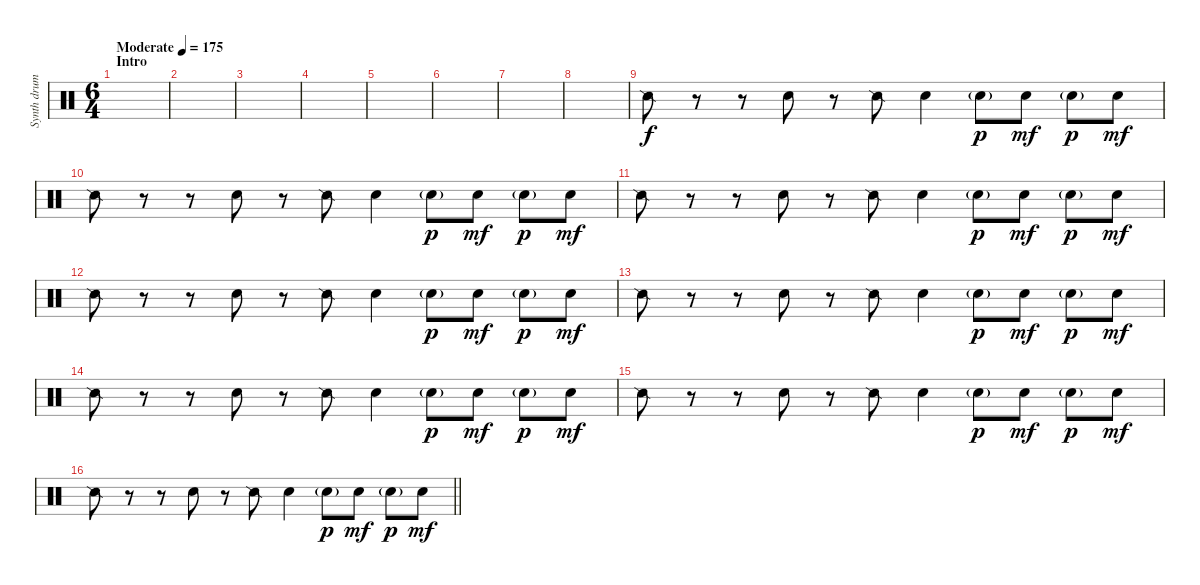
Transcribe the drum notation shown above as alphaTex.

\track ("Synth drums" "Synth drum") {instrument percussion}
\staff {score}
\articulation defaults
\ts (6 4)
\section ("" "Intro")
\tempo (175 "Moderate")
\clef neutral
\ks c
|
|
|
|
|
|
|
|
"Snare (side stick) 2".8 r.8 r.8 "Hand Clap (hit)".8 r.8 "Snare (side stick) 2".8 "Hand Clap (hit)".4 "Hand Clap (hit)"{g}.8{dy p} "Hand Clap (hit)".8{dy mf} "Hand Clap (hit)"{g}.8{dy p} "Hand Clap (hit)".8{dy mf} |
"Snare (side stick) 2".8 r.8 r.8 "Hand Clap (hit)".8 r.8 "Snare (side stick) 2".8 "Hand Clap (hit)".4 "Hand Clap (hit)"{g}.8{dy p} "Hand Clap (hit)".8{dy mf} "Hand Clap (hit)"{g}.8{dy p} "Hand Clap (hit)".8{dy mf} |
"Snare (side stick) 2".8 r.8 r.8 "Hand Clap (hit)".8 r.8 "Snare (side stick) 2".8 "Hand Clap (hit)".4 "Hand Clap (hit)"{g}.8{dy p} "Hand Clap (hit)".8{dy mf} "Hand Clap (hit)"{g}.8{dy p} "Hand Clap (hit)".8{dy mf} |
"Snare (side stick) 2".8 r.8 r.8 "Hand Clap (hit)".8 r.8 "Snare (side stick) 2".8 "Hand Clap (hit)".4 "Hand Clap (hit)"{g}.8{dy p} "Hand Clap (hit)".8{dy mf} "Hand Clap (hit)"{g}.8{dy p} "Hand Clap (hit)".8{dy mf} |
"Snare (side stick) 2".8 r.8 r.8 "Hand Clap (hit)".8 r.8 "Snare (side stick) 2".8 "Hand Clap (hit)".4 "Hand Clap (hit)"{g}.8{dy p} "Hand Clap (hit)".8{dy mf} "Hand Clap (hit)"{g}.8{dy p} "Hand Clap (hit)".8{dy mf} |
"Snare (side stick) 2".8 r.8 r.8 "Hand Clap (hit)".8 r.8 "Snare (side stick) 2".8 "Hand Clap (hit)".4 "Hand Clap (hit)"{g}.8{dy p} "Hand Clap (hit)".8{dy mf} "Hand Clap (hit)"{g}.8{dy p} "Hand Clap (hit)".8{dy mf} |
"Snare (side stick) 2".8 r.8 r.8 "Hand Clap (hit)".8 r.8 "Snare (side stick) 2".8 "Hand Clap (hit)".4 "Hand Clap (hit)"{g}.8{dy p} "Hand Clap (hit)".8{dy mf} "Hand Clap (hit)"{g}.8{dy p} "Hand Clap (hit)".8{dy mf} |
\barLineRight lightlight "Snare (side stick) 2".8
r.8 r.8 "Hand Clap (hit)".8 r.8 "Snare (side stick) 2".8 "Hand Clap (hit)".4 "Hand Clap (hit)"{g}.8{dy p} "Hand Clap (hit)".8{dy mf} "Hand Clap (hit)"{g}.8{dy p} "Hand Clap (hit)".8{dy mf}
